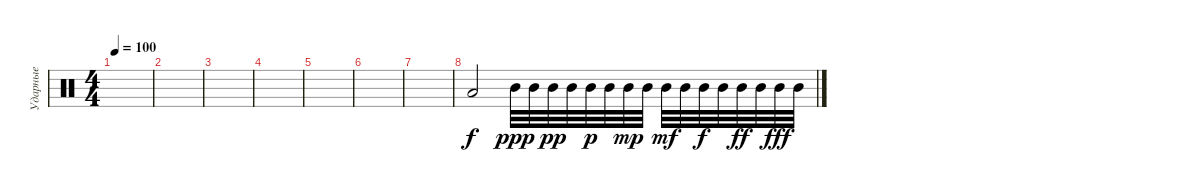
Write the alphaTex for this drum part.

\track ("Ударные" "Ударные") {instrument percussion}
\staff {score}
\articulation defaults
\ts (4 4)
\tempo 100
\clef neutral
\ks c
|
|
|
|
|
|
|
"Low Floor Tom (hit)".2{dy f} "Mid Tom (hit)".32{dy ppp} "Mid Tom (hit)".32 "Mid Tom (hit)".32{dy pp} "Mid Tom (hit)".32 "Mid Tom (hit)".32{dy p} "Mid Tom (hit)".32 "Mid Tom (hit)".32{dy mp} "Mid Tom (hit)".32 "Mid Tom (hit)".32{dy mf} "Mid Tom (hit)".32 "Mid Tom (hit)".32{dy f} "Mid Tom (hit)".32 "Mid Tom (hit)".32{dy ff} "Mid Tom (hit)".32 "Mid Tom (hit)".32{dy fff} "Mid Tom (hit)".32
